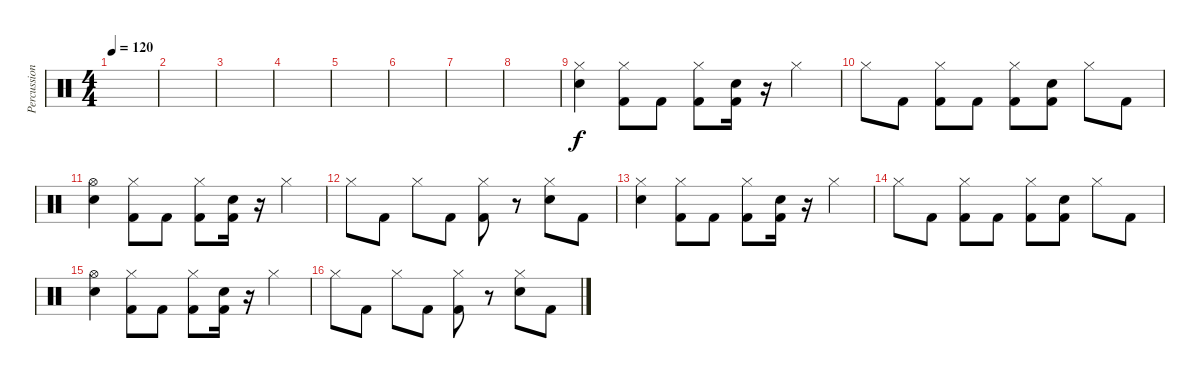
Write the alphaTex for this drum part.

\track ("Percussion" "Percussion") {instrument percussion}
\staff {score}
\articulation defaults
\ts (4 4)
\tempo 120
\clef neutral
\ks c
|
|
|
|
|
|
|
|
("Hi-Hat (closed)" "Snare (hit) 2").4 ("Hi-Hat (closed)" "Kick (hit) 2").8 "Kick (hit) 2".8 ("Hi-Hat (closed)" "Kick (hit) 2").8 ("Snare (hit) 2" "Kick (hit) 2").16 r.16 "Hi-Hat (closed)".4 |
"Hi-Hat (closed)".8 "Kick (hit) 2".8 ("Hi-Hat (closed)" "Kick (hit) 2").8 "Kick (hit) 2".8 ("Hi-Hat (closed)" "Kick (hit) 2").8 ("Snare (hit) 2" "Kick (hit) 2").8 "Hi-Hat (closed)".8 "Kick (hit) 2".8 |
("Hi-Hat (open)" "Snare (hit) 2").4 ("Hi-Hat (closed)" "Kick (hit) 2").8 "Kick (hit) 2".8 ("Hi-Hat (closed)" "Kick (hit) 2").8 ("Snare (hit) 2" "Kick (hit) 2").16 r.16 "Hi-Hat (closed)".4 |
"Hi-Hat (closed)".8 "Kick (hit) 2".8 "Hi-Hat (closed)".8 "Kick (hit) 2".8 ("Hi-Hat (closed)" "Kick (hit) 2").8 r.8 ("Hi-Hat (closed)" "Snare (hit) 2").8 "Kick (hit) 2".8 |
("Hi-Hat (closed)" "Snare (hit) 2").4 ("Hi-Hat (closed)" "Kick (hit) 2").8 "Kick (hit) 2".8 ("Hi-Hat (closed)" "Kick (hit) 2").8 ("Snare (hit) 2" "Kick (hit) 2").16 r.16 "Hi-Hat (closed)".4 |
"Hi-Hat (closed)".8 "Kick (hit) 2".8 ("Hi-Hat (closed)" "Kick (hit) 2").8 "Kick (hit) 2".8 ("Hi-Hat (closed)" "Kick (hit) 2").8 ("Snare (hit) 2" "Kick (hit) 2").8 "Hi-Hat (closed)".8 "Kick (hit) 2".8 |
("Hi-Hat (open)" "Snare (hit) 2").4 ("Hi-Hat (closed)" "Kick (hit) 2").8 "Kick (hit) 2".8 ("Hi-Hat (closed)" "Kick (hit) 2").8 ("Snare (hit) 2" "Kick (hit) 2").16 r.16 "Hi-Hat (closed)".4 |
"Hi-Hat (closed)".8 "Kick (hit) 2".8 "Hi-Hat (closed)".8 "Kick (hit) 2".8 ("Hi-Hat (closed)" "Kick (hit) 2").8 r.8 ("Hi-Hat (closed)" "Snare (hit) 2").8 "Kick (hit) 2".8
